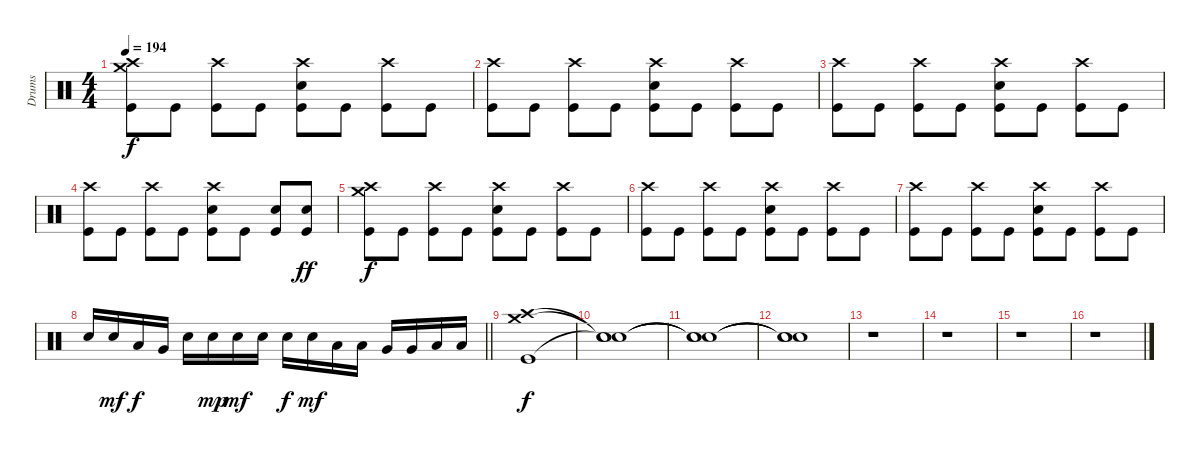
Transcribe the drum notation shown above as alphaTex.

\track ("Drums" "Drums") {instrument percussion}
\staff {score}
\articulation defaults
\ts (4 4)
\tempo 194
\clef neutral
\ks c
("Crash medium (hit)" "Crash high (hit)" "Kick (hit)").8{dy f} "Kick (hit)".8 ("Crash high (hit)" "Kick (hit)").8 "Kick (hit)".8 ("Crash high (hit)" "Snare (hit) 2" "Kick (hit)").8 "Kick (hit)".8 ("Crash high (hit)" "Kick (hit)").8 "Kick (hit)".8 |
("Crash high (hit)" "Kick (hit)").8 "Kick (hit)".8 ("Crash high (hit)" "Kick (hit)").8 "Kick (hit)".8 ("Crash high (hit)" "Snare (hit) 2" "Kick (hit)").8 "Kick (hit)".8 ("Crash high (hit)" "Kick (hit)").8 "Kick (hit)".8 |
("Crash high (hit)" "Kick (hit)").8 "Kick (hit)".8 ("Crash high (hit)" "Kick (hit)").8 "Kick (hit)".8 ("Crash high (hit)" "Snare (hit) 2" "Kick (hit)").8 "Kick (hit)".8 ("Crash high (hit)" "Kick (hit)").8 "Kick (hit)".8 |
("Crash high (hit)" "Kick (hit)").8 "Kick (hit)".8 ("Crash high (hit)" "Kick (hit)").8 "Kick (hit)".8 ("Crash high (hit)" "Snare (hit) 2" "Kick (hit)").8 "Kick (hit)".8 ("Snare (hit) 2" "Kick (hit)").8 ("Snare (hit) 2" "Kick (hit)").8{dy ff} |
("Crash medium (hit)" "Crash high (hit)" "Kick (hit)").8{dy f} "Kick (hit)".8 ("Crash high (hit)" "Kick (hit)").8 "Kick (hit)".8 ("Crash high (hit)" "Snare (hit) 2" "Kick (hit)").8 "Kick (hit)".8 ("Crash high (hit)" "Kick (hit)").8 "Kick (hit)".8 |
("Crash high (hit)" "Kick (hit)").8 "Kick (hit)".8 ("Crash high (hit)" "Kick (hit)").8 "Kick (hit)".8 ("Crash high (hit)" "Snare (hit) 2" "Kick (hit)").8 "Kick (hit)".8 ("Crash high (hit)" "Kick (hit)").8 "Kick (hit)".8 |
("Crash high (hit)" "Kick (hit)").8 "Kick (hit)".8 ("Crash high (hit)" "Kick (hit)").8 "Kick (hit)".8 ("Crash high (hit)" "Snare (hit) 2" "Kick (hit)").8 "Kick (hit)".8 ("Crash high (hit)" "Kick (hit)").8 "Kick (hit)".8 |
\barLineRight lightlight "Snare (hit) 2".16 "Snare (hit) 2".16{dy mf} "Low Tom (hit)".16{dy f} "Very Low Tom (hit)".16 "Snare (hit) 2".16 "Snare (hit) 2".16{dy mp} "Snare (hit) 2".16{dy mf} "Snare (hit) 2".16 "Snare (hit) 2".16{dy f} "Snare (hit) 2".16{dy mf} "Low Tom (hit)".16 "Low Tom (hit)".16 "Very Low Tom (hit)".16 "Very Low Tom (hit)".16 "Low Floor Tom (hit)".16 "Low Floor Tom (hit)".16
|
\section ("" "")
("Crash high (hit)" "Crash medium (hit)" "Kick (hit)").1{dy f} |
("Snare (hit)"{t} "Snare (hit)"{t} "Snare (hit)"{t}).1 |
("Snare (hit)"{t} "Snare (hit)"{t} "Snare (hit)"{t}).1 |
("Snare (hit)"{t} "Snare (hit)"{t} "Snare (hit)"{t}).1 |
r.1 |
r.1 |
r.1 |
r.1
